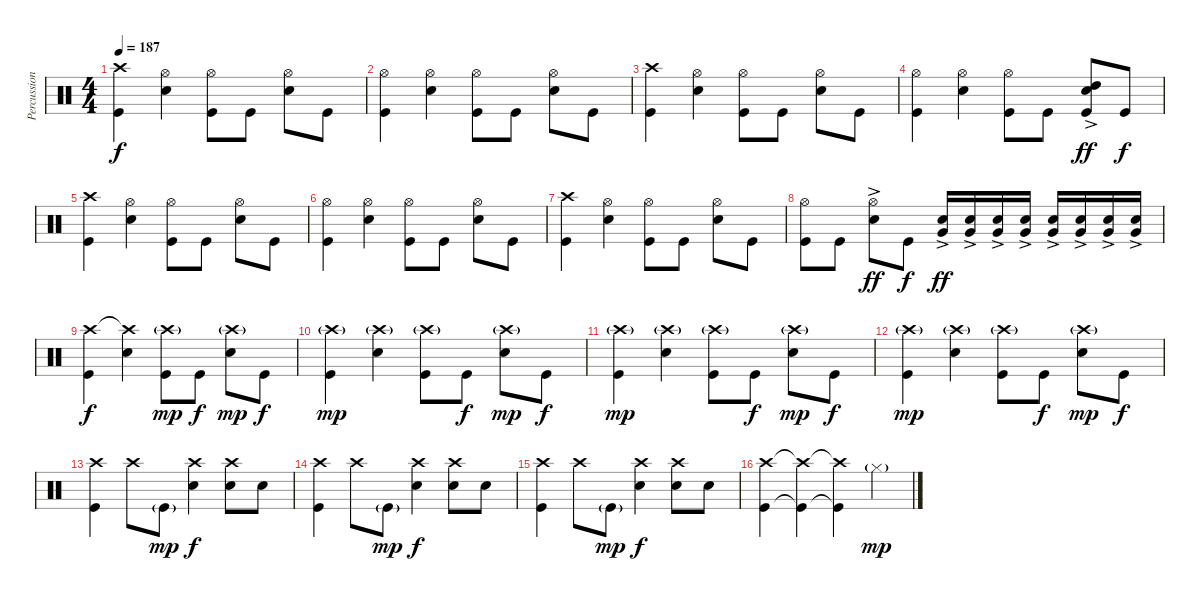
\track ("Percussions" "Percussion") {instrument percussion}
\staff {score}
\articulation defaults
\ts (4 4)
\tempo 187
\clef neutral
\ks c
("Kick (hit)" "Crash high (hit)").4{dy f} ("Electric Snare (hit)" "Hi-Hat (open)").4 ("Kick (hit)" "Hi-Hat (open)").8 "Kick (hit)".8 ("Electric Snare (hit)" "Hi-Hat (open)").8 "Kick (hit)".8 |
("Kick (hit)" "Hi-Hat (open)").4 ("Electric Snare (hit)" "Hi-Hat (open)").4 ("Kick (hit)" "Hi-Hat (open)").8 "Kick (hit)".8 ("Electric Snare (hit)" "Hi-Hat (open)").8 "Kick (hit)".8 |
("Kick (hit)" "Crash high (hit)").4 ("Electric Snare (hit)" "Hi-Hat (open)").4 ("Kick (hit)" "Hi-Hat (open)").8 "Kick (hit)".8 ("Electric Snare (hit)" "Hi-Hat (open)").8 "Kick (hit)".8 |
("Kick (hit)" "Hi-Hat (open)").4 ("Electric Snare (hit)" "Hi-Hat (open)").4 ("Kick (hit)" "Hi-Hat (open)").8 "Kick (hit)".8 ("High Tom (hit)"{ac} "Electric Snare (hit)"{ac} "Kick (hit)").8{dy ff} "Kick (hit)".8{dy f} |
("Kick (hit)" "Crash high (hit)").4 ("Electric Snare (hit)" "Hi-Hat (open)").4 ("Kick (hit)" "Hi-Hat (open)").8 "Kick (hit)".8 ("Electric Snare (hit)" "Hi-Hat (open)").8 "Kick (hit)".8 |
("Kick (hit)" "Hi-Hat (open)").4 ("Electric Snare (hit)" "Hi-Hat (open)").4 ("Kick (hit)" "Hi-Hat (open)").8 "Kick (hit)".8 ("Electric Snare (hit)" "Hi-Hat (open)").8 "Kick (hit)".8 |
("Kick (hit)" "Crash high (hit)").4 ("Electric Snare (hit)" "Hi-Hat (open)").4 ("Kick (hit)" "Hi-Hat (open)").8 "Kick (hit)".8 ("Electric Snare (hit)" "Hi-Hat (open)").8 "Kick (hit)".8 |
("Kick (hit)" "Hi-Hat (open)").8 "Kick (hit)".8 ("Electric Snare (hit)"{ac} "Hi-Hat (open)").8{dy ff} "Kick (hit)".8{dy f} ("Very Low Tom (hit)"{ac} "Electric Snare (hit)").16{dy ff} ("Very Low Tom (hit)"{ac} "Electric Snare (hit)").16 ("Very Low Tom (hit)"{ac} "Electric Snare (hit)").16 ("Very Low Tom (hit)"{ac} "Electric Snare (hit)").16 ("Very Low Tom (hit)"{ac} "Electric Snare (hit)").16 ("Very Low Tom (hit)"{ac} "Electric Snare (hit)").16 ("Very Low Tom (hit)"{ac} "Electric Snare (hit)").16 ("Very Low Tom (hit)"{ac} "Electric Snare (hit)").16 |
("Kick (hit)" "Crash high (hit)").4{dy f} ("Electric Snare (hit)" "Crash high (hit)"{t}).4 ("Kick (hit)" "Crash high (hit)"{g}).8{dy mp} "Kick (hit)".8{dy f} ("Electric Snare (hit)" "Crash high (hit)"{g}).8{dy mp} "Kick (hit)".8{dy f} |
("Kick (hit)" "Crash high (hit)"{g}).4{dy mp} ("Electric Snare (hit)" "Crash high (hit)"{g}).4 ("Kick (hit)" "Crash high (hit)"{g}).8 "Kick (hit)".8{dy f} ("Electric Snare (hit)" "Crash high (hit)"{g}).8{dy mp} "Kick (hit)".8{dy f} |
("Kick (hit)" "Crash high (hit)"{g}).4{dy mp} ("Electric Snare (hit)" "Crash high (hit)"{g}).4 ("Kick (hit)" "Crash high (hit)"{g}).8 "Kick (hit)".8{dy f} ("Electric Snare (hit)" "Crash high (hit)"{g}).8{dy mp} "Kick (hit)".8{dy f} |
("Kick (hit)" "Crash high (hit)"{g}).4{dy mp} ("Electric Snare (hit)" "Crash high (hit)"{g}).4 ("Kick (hit)" "Crash high (hit)"{g}).8 "Kick (hit)".8{dy f} ("Electric Snare (hit)" "Crash high (hit)"{g}).8{dy mp} "Kick (hit)".8{dy f} |
("Kick (hit)" "Crash high (hit)").4 "Crash high (hit)".8 "Kick (hit)"{g}.8{dy mp} ("Electric Snare (hit)" "Crash high (hit)").4{dy f} ("Electric Snare (hit)" "Crash high (hit)").8 "Electric Snare (hit)".8 |
("Kick (hit)" "Crash high (hit)").4 "Crash high (hit)".8 "Kick (hit)"{g}.8{dy mp} ("Electric Snare (hit)" "Crash high (hit)").4{dy f} ("Electric Snare (hit)" "Crash high (hit)").8 "Electric Snare (hit)".8 |
("Kick (hit)" "Crash high (hit)").4 "Crash high (hit)".8 "Kick (hit)"{g}.8{dy mp} ("Electric Snare (hit)" "Crash high (hit)").4{dy f} ("Electric Snare (hit)" "Crash high (hit)").8 "Electric Snare (hit)".8 |
("Kick (hit)" "Crash high (hit)").4 ("Kick (hit)"{t} "Crash high (hit)"{t}).4 ("Kick (hit)"{t} "Crash high (hit)"{t}).4 "Hi-Hat (closed)"{g}.4{dy mp}
